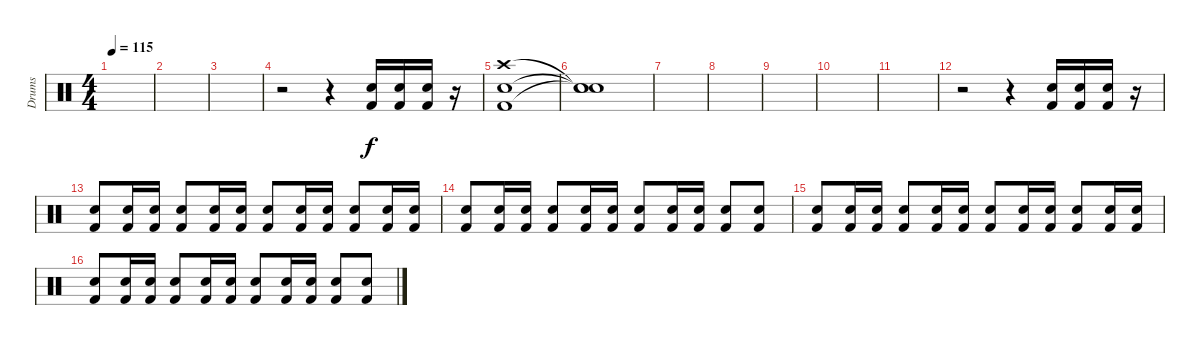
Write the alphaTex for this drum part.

\track ("Drums" "Drums") {instrument percussion}
\staff {score}
\articulation defaults
\ts (4 4)
\tempo 115
\clef neutral
\ks c
|
|
|
r.2 r.4 ("Kick (hit) 2" "Snare (hit) 2").16 ("Kick (hit) 2" "Snare (hit) 2").16 ("Kick (hit) 2" "Snare (hit) 2").16 r.16 |
("Electric Snare (hit)" "Crash high (hit)" "Kick (hit) 2").1 |
("Snare (hit)"{t} "Snare (hit)"{t} "Snare (hit)"{t}).1 |
|
|
|
|
|
r.2 r.4 ("Kick (hit) 2" "Snare (hit) 2").16 ("Kick (hit) 2" "Snare (hit) 2").16 ("Kick (hit) 2" "Snare (hit) 2").16 r.16 |
("Kick (hit) 2" "Snare (hit) 2").8 ("Kick (hit) 2" "Snare (hit) 2").16 ("Kick (hit) 2" "Snare (hit) 2").16 ("Kick (hit) 2" "Snare (hit) 2").8 ("Kick (hit) 2" "Snare (hit) 2").16 ("Kick (hit) 2" "Snare (hit) 2").16 ("Kick (hit) 2" "Snare (hit) 2").8 ("Kick (hit) 2" "Snare (hit) 2").16 ("Kick (hit) 2" "Snare (hit) 2").16 ("Kick (hit) 2" "Snare (hit) 2").8 ("Kick (hit) 2" "Snare (hit) 2").16 ("Kick (hit) 2" "Snare (hit) 2").16 |
("Kick (hit) 2" "Snare (hit) 2").8 ("Kick (hit) 2" "Snare (hit) 2").16 ("Kick (hit) 2" "Snare (hit) 2").16 ("Kick (hit) 2" "Snare (hit) 2").8 ("Kick (hit) 2" "Snare (hit) 2").16 ("Kick (hit) 2" "Snare (hit) 2").16 ("Kick (hit) 2" "Snare (hit) 2").8 ("Kick (hit) 2" "Snare (hit) 2").16 ("Kick (hit) 2" "Snare (hit) 2").16 ("Kick (hit) 2" "Snare (hit) 2").8 ("Kick (hit) 2" "Snare (hit) 2").8 |
("Kick (hit) 2" "Snare (hit) 2").8 ("Kick (hit) 2" "Snare (hit) 2").16 ("Kick (hit) 2" "Snare (hit) 2").16 ("Kick (hit) 2" "Snare (hit) 2").8 ("Kick (hit) 2" "Snare (hit) 2").16 ("Kick (hit) 2" "Snare (hit) 2").16 ("Kick (hit) 2" "Snare (hit) 2").8 ("Kick (hit) 2" "Snare (hit) 2").16 ("Kick (hit) 2" "Snare (hit) 2").16 ("Kick (hit) 2" "Snare (hit) 2").8 ("Kick (hit) 2" "Snare (hit) 2").16 ("Kick (hit) 2" "Snare (hit) 2").16 |
("Kick (hit) 2" "Snare (hit) 2").8 ("Kick (hit) 2" "Snare (hit) 2").16 ("Kick (hit) 2" "Snare (hit) 2").16 ("Kick (hit) 2" "Snare (hit) 2").8 ("Kick (hit) 2" "Snare (hit) 2").16 ("Kick (hit) 2" "Snare (hit) 2").16 ("Kick (hit) 2" "Snare (hit) 2").8 ("Kick (hit) 2" "Snare (hit) 2").16 ("Kick (hit) 2" "Snare (hit) 2").16 ("Kick (hit) 2" "Snare (hit) 2").8 ("Kick (hit) 2" "Snare (hit) 2").8
